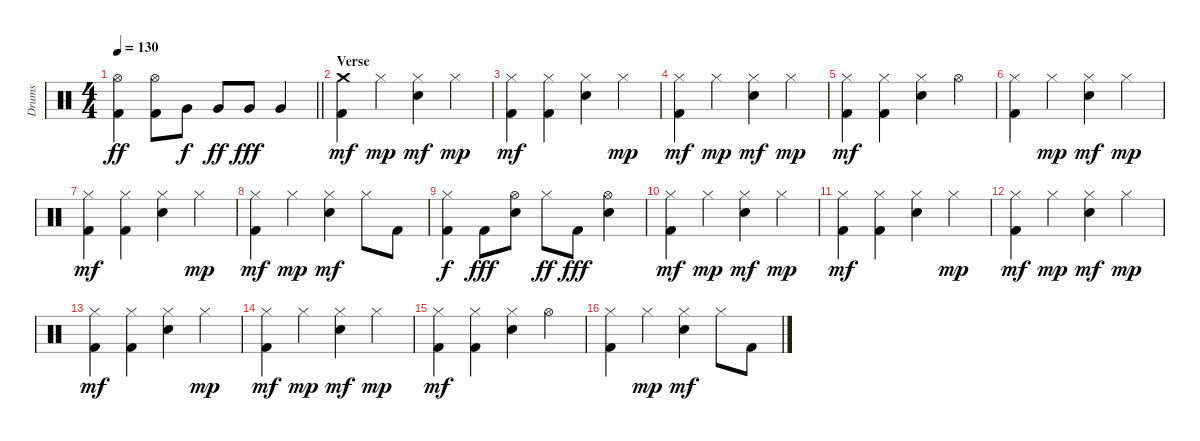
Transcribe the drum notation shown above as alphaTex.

\track ("Drums" "Drums") {instrument percussion}
\staff {score}
\articulation defaults
\ts (4 4)
\tempo 130
\clef neutral
\barLineRight lightlight
\ks c
("Hi-Hat (open)" "Kick (hit) 2").4{dy ff} ("Hi-Hat (open)" "Kick (hit) 2").8 "Very Low Tom (hit)".8{dy f} "Very Low Tom (hit)".8{dy ff} "Very Low Tom (hit)".8{dy fff} "Very Low Tom (hit)".4 |
\section ("" "Verse")
("Crash medium (hit)" "Kick (hit) 2").4{dy mf} "Hi-Hat (closed)".4{dy mp} ("Hi-Hat (closed)" "Snare (hit) 2").4{dy mf} "Hi-Hat (closed)".4{dy mp} |
("Hi-Hat (closed)" "Kick (hit) 2").4{dy mf} ("Hi-Hat (closed)" "Kick (hit) 2").4 ("Hi-Hat (closed)" "Snare (hit) 2").4 "Hi-Hat (closed)".4{dy mp} |
("Hi-Hat (closed)" "Kick (hit) 2").4{dy mf} "Hi-Hat (closed)".4{dy mp} ("Hi-Hat (closed)" "Snare (hit) 2").4{dy mf} "Hi-Hat (closed)".4{dy mp} |
("Hi-Hat (closed)" "Kick (hit) 2").4{dy mf} ("Hi-Hat (closed)" "Kick (hit) 2").4 ("Hi-Hat (closed)" "Snare (hit) 2").4 "Hi-Hat (open)".4 |
("Hi-Hat (closed)" "Kick (hit) 2").4 "Hi-Hat (closed)".4{dy mp} ("Hi-Hat (closed)" "Snare (hit) 2").4{dy mf} "Hi-Hat (closed)".4{dy mp} |
("Hi-Hat (closed)" "Kick (hit) 2").4{dy mf} ("Hi-Hat (closed)" "Kick (hit) 2").4 ("Hi-Hat (closed)" "Snare (hit) 2").4 "Hi-Hat (closed)".4{dy mp} |
("Hi-Hat (closed)" "Kick (hit) 2").4{dy mf} "Hi-Hat (closed)".4{dy mp} ("Hi-Hat (closed)" "Snare (hit) 2").4{dy mf} "Hi-Hat (closed)".8 "Kick (hit) 2".8 |
("Hi-Hat (closed)" "Kick (hit) 2").4{dy f} "Kick (hit) 2".8{dy fff} ("Hi-Hat (open)" "Snare (hit) 2").8 "Hi-Hat (closed)".8{dy ff} "Kick (hit) 2".8{dy fff} ("Hi-Hat (open)" "Snare (hit) 2").4 |
("Hi-Hat (closed)" "Kick (hit) 2").4{dy mf} "Hi-Hat (closed)".4{dy mp} ("Hi-Hat (closed)" "Snare (hit) 2").4{dy mf} "Hi-Hat (closed)".4{dy mp} |
("Hi-Hat (closed)" "Kick (hit) 2").4{dy mf} ("Hi-Hat (closed)" "Kick (hit) 2").4 ("Hi-Hat (closed)" "Snare (hit) 2").4 "Hi-Hat (closed)".4{dy mp} |
("Hi-Hat (closed)" "Kick (hit) 2").4{dy mf} "Hi-Hat (closed)".4{dy mp} ("Hi-Hat (closed)" "Snare (hit) 2").4{dy mf} "Hi-Hat (closed)".4{dy mp} |
("Hi-Hat (closed)" "Kick (hit) 2").4{dy mf} ("Hi-Hat (closed)" "Kick (hit) 2").4 ("Hi-Hat (closed)" "Snare (hit) 2").4 "Hi-Hat (closed)".4{dy mp} |
("Hi-Hat (closed)" "Kick (hit) 2").4{dy mf} "Hi-Hat (closed)".4{dy mp} ("Hi-Hat (closed)" "Snare (hit) 2").4{dy mf} "Hi-Hat (closed)".4{dy mp} |
("Hi-Hat (closed)" "Kick (hit) 2").4{dy mf} ("Hi-Hat (closed)" "Kick (hit) 2").4 ("Hi-Hat (closed)" "Snare (hit) 2").4 "Hi-Hat (open)".4 |
("Hi-Hat (closed)" "Kick (hit) 2").4 "Hi-Hat (closed)".4{dy mp} ("Hi-Hat (closed)" "Snare (hit) 2").4{dy mf} "Hi-Hat (closed)".8 "Kick (hit) 2".8
